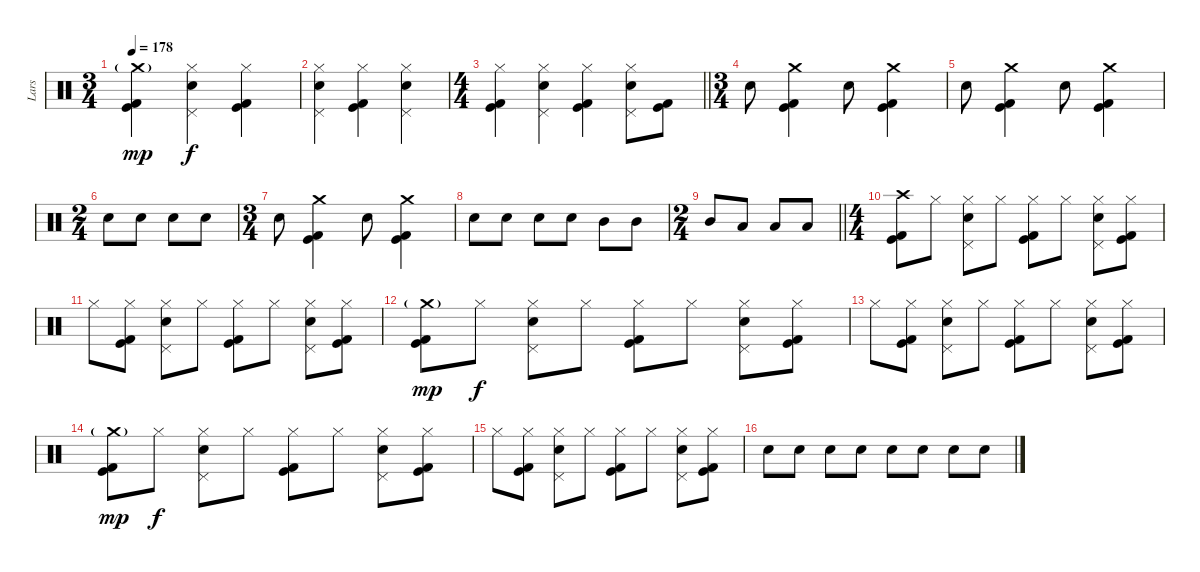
\track ("Lars" "Lars") {instrument percussion}
\staff {score}
\articulation defaults
\ts (3 4)
\tempo 178
\clef neutral
\ks c
("Crash medium (hit)"{g} "Kick (hit)" "Kick (hit) 2").4{dy mp} ("Hi-Hat (closed)" "Pedal Hi-Hat (hit)" "Electric Snare (hit)").4{dy f} ("Hi-Hat (closed)" "Kick (hit)" "Kick (hit) 2").4 |
("Hi-Hat (closed)" "Pedal Hi-Hat (hit)" "Electric Snare (hit)").4 ("Hi-Hat (closed)" "Kick (hit)" "Kick (hit) 2").4 ("Hi-Hat (closed)" "Pedal Hi-Hat (hit)" "Electric Snare (hit)").4 |
\ts (4 4)
\barLineRight lightlight
("Hi-Hat (closed)" "Kick (hit)" "Kick (hit) 2").4 ("Hi-Hat (closed)" "Pedal Hi-Hat (hit)" "Electric Snare (hit)").4 ("Hi-Hat (closed)" "Kick (hit)" "Kick (hit) 2").4 ("Hi-Hat (closed)" "Pedal Hi-Hat (hit)" "Electric Snare (hit)").8 ("Kick (hit)" "Kick (hit) 2").8 |
\ts (3 4)
\section ("" "")
"Electric Snare (hit)".8 ("Crash medium (hit)" "Kick (hit)" "Kick (hit) 2").4 "Electric Snare (hit)".8 ("Crash medium (hit)" "Kick (hit)" "Kick (hit) 2").4 |
"Electric Snare (hit)".8 ("Crash medium (hit)" "Kick (hit)" "Kick (hit) 2").4 "Electric Snare (hit)".8 ("Crash medium (hit)" "Kick (hit)" "Kick (hit) 2").4 |
\ts (2 4)
"Electric Snare (hit)".8 "Electric Snare (hit)".8 "Electric Snare (hit)".8 "Electric Snare (hit)".8 |
\ts (3 4)
"Electric Snare (hit)".8 ("Crash medium (hit)" "Kick (hit)" "Kick (hit) 2").4 "Electric Snare (hit)".8 ("Crash medium (hit)" "Kick (hit)" "Kick (hit) 2").4 |
"Electric Snare (hit)".8 "Electric Snare (hit)".8 "Electric Snare (hit)".8 "Electric Snare (hit)".8 "Mid Tom (hit)".8 "Mid Tom (hit)".8 |
\ts (2 4)
\barLineRight lightlight "Mid Tom (hit)".8 "Low Tom (hit)".8 "Low Tom (hit)".8 "Low Tom (hit)".8
|
\ts (4 4)
\section ("" "")
("Crash high (hit)" "Kick (hit)" "Kick (hit) 2").8 "Hi-Hat (closed)".8 ("Hi-Hat (closed)" "Pedal Hi-Hat (hit)" "Electric Snare (hit)").8 "Hi-Hat (closed)".8 ("Hi-Hat (closed)" "Kick (hit)" "Kick (hit) 2").8 "Hi-Hat (closed)".8 ("Hi-Hat (closed)" "Pedal Hi-Hat (hit)" "Electric Snare (hit)").8 ("Hi-Hat (closed)" "Kick (hit)" "Kick (hit) 2").8 |
"Hi-Hat (closed)".8 ("Hi-Hat (closed)" "Kick (hit)" "Kick (hit) 2").8 ("Hi-Hat (closed)" "Pedal Hi-Hat (hit)" "Electric Snare (hit)").8 "Hi-Hat (closed)".8 ("Hi-Hat (closed)" "Kick (hit)" "Kick (hit) 2").8 "Hi-Hat (closed)".8 ("Hi-Hat (closed)" "Pedal Hi-Hat (hit)" "Electric Snare (hit)").8 ("Hi-Hat (closed)" "Kick (hit)" "Kick (hit) 2").8 |
("Crash medium (hit)"{g} "Kick (hit)" "Kick (hit) 2").8{dy mp} "Hi-Hat (closed)".8{dy f} ("Hi-Hat (closed)" "Pedal Hi-Hat (hit)" "Electric Snare (hit)").8 "Hi-Hat (closed)".8 ("Hi-Hat (closed)" "Kick (hit)" "Kick (hit) 2").8 "Hi-Hat (closed)".8 ("Hi-Hat (closed)" "Pedal Hi-Hat (hit)" "Electric Snare (hit)").8 ("Hi-Hat (closed)" "Kick (hit)" "Kick (hit) 2").8 |
"Hi-Hat (closed)".8 ("Hi-Hat (closed)" "Kick (hit)" "Kick (hit) 2").8 ("Hi-Hat (closed)" "Pedal Hi-Hat (hit)" "Electric Snare (hit)").8 "Hi-Hat (closed)".8 ("Hi-Hat (closed)" "Kick (hit)" "Kick (hit) 2").8 "Hi-Hat (closed)".8 ("Hi-Hat (closed)" "Pedal Hi-Hat (hit)" "Electric Snare (hit)").8 ("Hi-Hat (closed)" "Kick (hit)" "Kick (hit) 2").8 |
("Crash medium (hit)"{g} "Kick (hit)" "Kick (hit) 2").8{dy mp} "Hi-Hat (closed)".8{dy f} ("Hi-Hat (closed)" "Pedal Hi-Hat (hit)" "Electric Snare (hit)").8 "Hi-Hat (closed)".8 ("Hi-Hat (closed)" "Kick (hit)" "Kick (hit) 2").8 "Hi-Hat (closed)".8 ("Hi-Hat (closed)" "Pedal Hi-Hat (hit)" "Electric Snare (hit)").8 ("Hi-Hat (closed)" "Kick (hit)" "Kick (hit) 2").8 |
"Hi-Hat (closed)".8 ("Hi-Hat (closed)" "Kick (hit)" "Kick (hit) 2").8 ("Hi-Hat (closed)" "Pedal Hi-Hat (hit)" "Electric Snare (hit)").8 "Hi-Hat (closed)".8 ("Hi-Hat (closed)" "Kick (hit)" "Kick (hit) 2").8 "Hi-Hat (closed)".8 ("Hi-Hat (closed)" "Pedal Hi-Hat (hit)" "Electric Snare (hit)").8 ("Hi-Hat (closed)" "Kick (hit)" "Kick (hit) 2").8 |
"Electric Snare (hit)".8 "Electric Snare (hit)".8 "Electric Snare (hit)".8 "Electric Snare (hit)".8 "Electric Snare (hit)".8 "Electric Snare (hit)".8 "Electric Snare (hit)".8 "Electric Snare (hit)".8
